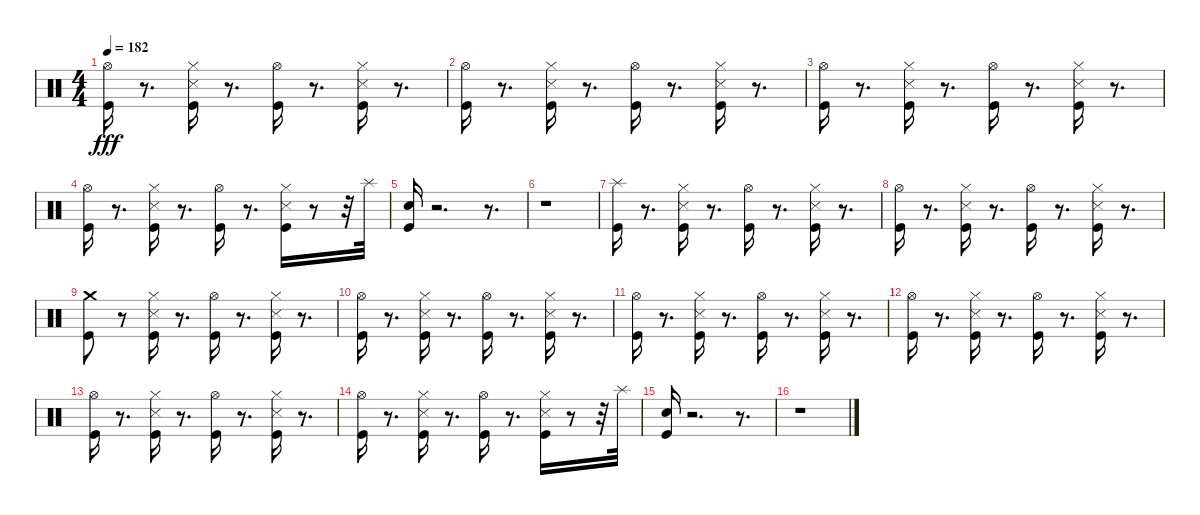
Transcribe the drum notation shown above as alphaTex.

\track "" {instrument percussion}
\staff {score}
\articulation defaults
\ts (4 4)
\tempo 182
\clef neutral
\ks c
("Kick (hit)" "Hi-Hat (open)").16{dy fff} r.8{d} ("Kick (hit)" "Snare (side stick) 3" "Hi-Hat (closed)").16 r.8{d} ("Kick (hit)" "Hi-Hat (open)").16 r.8{d} ("Kick (hit)" "Snare (side stick) 3" "Hi-Hat (closed)").16 r.8{d} |
("Kick (hit)" "Hi-Hat (open)").16 r.8{d} ("Kick (hit)" "Snare (side stick) 3" "Hi-Hat (closed)").16 r.8{d} ("Kick (hit)" "Hi-Hat (open)").16 r.8{d} ("Kick (hit)" "Snare (side stick) 3" "Hi-Hat (closed)").16 r.8{d} |
("Kick (hit)" "Hi-Hat (open)").16 r.8{d} ("Kick (hit)" "Snare (side stick) 3" "Hi-Hat (closed)").16 r.8{d} ("Kick (hit)" "Hi-Hat (open)").16 r.8{d} ("Kick (hit)" "Snare (side stick) 3" "Hi-Hat (closed)").16 r.8{d} |
("Kick (hit)" "Hi-Hat (open)").16 r.8{d} ("Kick (hit)" "Snare (side stick) 3" "Hi-Hat (closed)").16 r.8{d} ("Kick (hit)" "Hi-Hat (open)").16 r.8{d} ("Kick (hit)" "Snare (side stick) 3" "Hi-Hat (closed)").16 r.8 r.32 "Splash (hit)".32 |
("Kick (hit)" "Electric Snare (hit)").16 r.2{d} r.8{d} |
r.1 |
("Splash (hit)" "Kick (hit)").16 r.8{d} ("Kick (hit)" "Snare (side stick) 3" "Hi-Hat (closed)").16 r.8{d} ("Kick (hit)" "Hi-Hat (open)").16 r.8{d} ("Kick (hit)" "Snare (side stick) 3" "Hi-Hat (closed)").16 r.8{d} |
("Kick (hit)" "Hi-Hat (open)").16 r.8{d} ("Kick (hit)" "Snare (side stick) 3" "Hi-Hat (closed)").16 r.8{d} ("Kick (hit)" "Hi-Hat (open)").16 r.8{d} ("Kick (hit)" "Snare (side stick) 3" "Hi-Hat (closed)").16 r.8{d} |
("Kick (hit)" "Crash medium (hit)").8 r.8 ("Kick (hit)" "Snare (side stick) 3" "Hi-Hat (closed)").16 r.8{d} ("Kick (hit)" "Hi-Hat (open)").16 r.8{d} ("Kick (hit)" "Snare (side stick) 3" "Hi-Hat (closed)").16 r.8{d} |
("Kick (hit)" "Hi-Hat (open)").16 r.8{d} ("Kick (hit)" "Snare (side stick) 3" "Hi-Hat (closed)").16 r.8{d} ("Kick (hit)" "Hi-Hat (open)").16 r.8{d} ("Kick (hit)" "Snare (side stick) 3" "Hi-Hat (closed)").16 r.8{d} |
("Kick (hit)" "Hi-Hat (open)").16 r.8{d} ("Kick (hit)" "Snare (side stick) 3" "Hi-Hat (closed)").16 r.8{d} ("Kick (hit)" "Hi-Hat (open)").16 r.8{d} ("Kick (hit)" "Snare (side stick) 3" "Hi-Hat (closed)").16 r.8{d} |
("Kick (hit)" "Hi-Hat (open)").16 r.8{d} ("Kick (hit)" "Snare (side stick) 3" "Hi-Hat (closed)").16 r.8{d} ("Kick (hit)" "Hi-Hat (open)").16 r.8{d} ("Kick (hit)" "Snare (side stick) 3" "Hi-Hat (closed)").16 r.8{d} |
("Kick (hit)" "Hi-Hat (open)").16 r.8{d} ("Kick (hit)" "Snare (side stick) 3" "Hi-Hat (closed)").16 r.8{d} ("Kick (hit)" "Hi-Hat (open)").16 r.8{d} ("Kick (hit)" "Snare (side stick) 3" "Hi-Hat (closed)").16 r.8{d} |
("Kick (hit)" "Hi-Hat (open)").16 r.8{d} ("Kick (hit)" "Snare (side stick) 3" "Hi-Hat (closed)").16 r.8{d} ("Kick (hit)" "Hi-Hat (open)").16 r.8{d} ("Kick (hit)" "Snare (side stick) 3" "Hi-Hat (closed)").16 r.8 r.32 "Splash (hit)".32 |
("Kick (hit)" "Electric Snare (hit)").16 r.2{d} r.8{d} |
r.1
